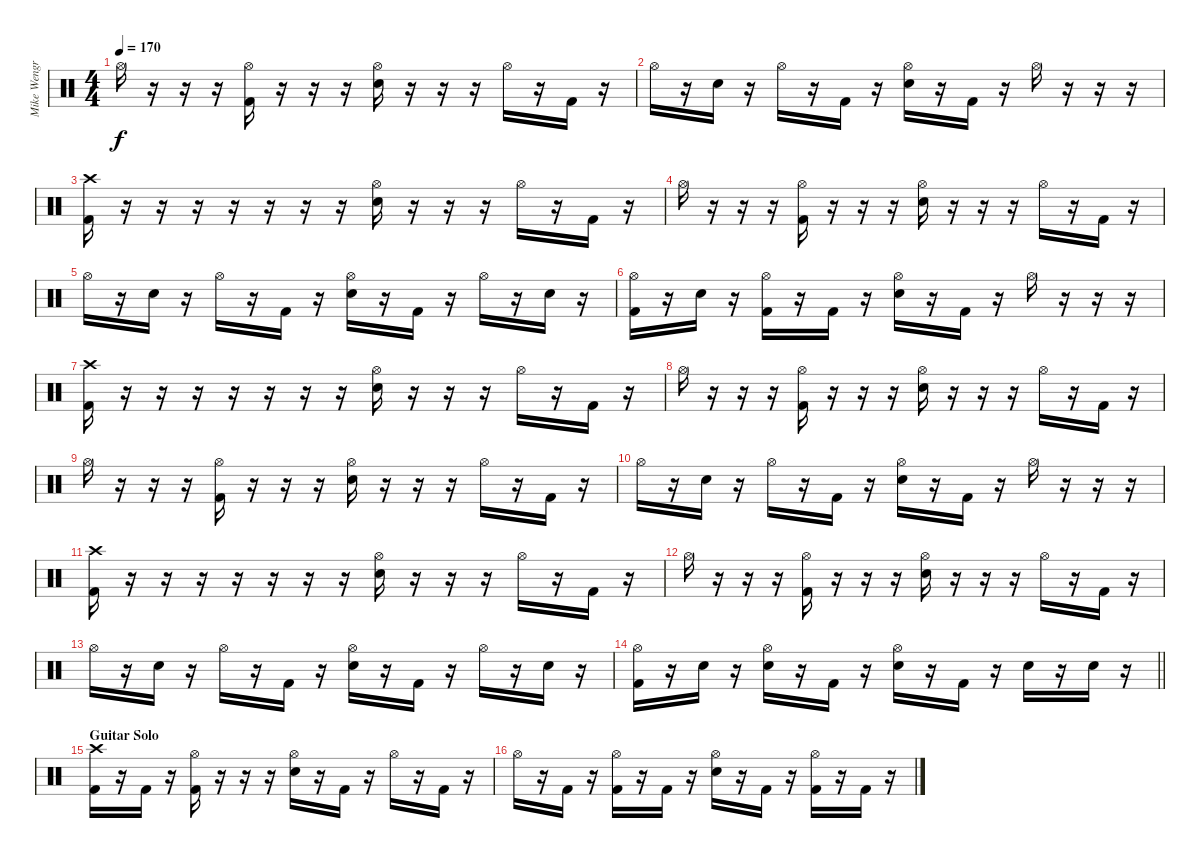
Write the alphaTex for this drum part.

\track ("Mike Wengren" "Mike Wengr") {instrument percussion}
\staff {score}
\articulation defaults
\ts (4 4)
\tempo 170
\clef neutral
\ks c "Hi-Hat (open)".16{dy f}
r.16 r.16 r.16 ("Hi-Hat (open)" "Kick (hit) 2").16 r.16 r.16 r.16 ("Hi-Hat (open)" "Snare (hit) 2").16 r.16 r.16 r.16 "Hi-Hat (open)".16 r.16 "Kick (hit) 2".16 r.16 |
"Hi-Hat (open)".16 r.16 "Snare (hit) 2".16 r.16 "Hi-Hat (open)".16 r.16 "Kick (hit) 2".16 r.16 ("Hi-Hat (open)" "Snare (hit) 2").16 r.16 "Kick (hit) 2".16 r.16 "Hi-Hat (open)".16 r.16 r.16 r.16 |
("Crash high (hit)" "Kick (hit) 2").16 r.16 r.16 r.16 r.16 r.16 r.16 r.16 ("Hi-Hat (open)" "Snare (hit) 2").16 r.16 r.16 r.16 "Hi-Hat (open)".16 r.16 "Kick (hit) 2".16 r.16 |
"Hi-Hat (open)".16 r.16 r.16 r.16 ("Hi-Hat (open)" "Kick (hit) 2").16 r.16 r.16 r.16 ("Hi-Hat (open)" "Snare (hit) 2").16 r.16 r.16 r.16 "Hi-Hat (open)".16 r.16 "Kick (hit) 2".16 r.16 |
"Hi-Hat (open)".16 r.16 "Snare (hit) 2".16 r.16 "Hi-Hat (open)".16 r.16 "Kick (hit) 2".16 r.16 ("Hi-Hat (open)" "Snare (hit) 2").16 r.16 "Kick (hit) 2".16 r.16 "Hi-Hat (open)".16 r.16 "Snare (hit) 2".16 r.16 |
("Hi-Hat (open)" "Kick (hit) 2").16 r.16 "Snare (hit) 2".16 r.16 ("Hi-Hat (open)" "Kick (hit) 2").16 r.16 "Kick (hit) 2".16 r.16 ("Hi-Hat (open)" "Snare (hit) 2").16 r.16 "Kick (hit) 2".16 r.16 "Hi-Hat (open)".16 r.16 r.16 r.16 |
("Crash high (hit)" "Kick (hit) 2").16 r.16 r.16 r.16 r.16 r.16 r.16 r.16 ("Hi-Hat (open)" "Snare (hit) 2").16 r.16 r.16 r.16 "Hi-Hat (open)".16 r.16 "Kick (hit) 2".16 r.16 |
"Hi-Hat (open)".16 r.16 r.16 r.16 ("Hi-Hat (open)" "Kick (hit) 2").16 r.16 r.16 r.16 ("Hi-Hat (open)" "Snare (hit) 2").16 r.16 r.16 r.16 "Hi-Hat (open)".16 r.16 "Kick (hit) 2".16 r.16 |
"Hi-Hat (open)".16 r.16 r.16 r.16 ("Hi-Hat (open)" "Kick (hit) 2").16 r.16 r.16 r.16 ("Hi-Hat (open)" "Snare (hit) 2").16 r.16 r.16 r.16 "Hi-Hat (open)".16 r.16 "Kick (hit) 2".16 r.16 |
"Hi-Hat (open)".16 r.16 "Snare (hit) 2".16 r.16 "Hi-Hat (open)".16 r.16 "Kick (hit) 2".16 r.16 ("Hi-Hat (open)" "Snare (hit) 2").16 r.16 "Kick (hit) 2".16 r.16 "Hi-Hat (open)".16 r.16 r.16 r.16 |
("Crash high (hit)" "Kick (hit) 2").16 r.16 r.16 r.16 r.16 r.16 r.16 r.16 ("Hi-Hat (open)" "Snare (hit) 2").16 r.16 r.16 r.16 "Hi-Hat (open)".16 r.16 "Kick (hit) 2".16 r.16 |
"Hi-Hat (open)".16 r.16 r.16 r.16 ("Hi-Hat (open)" "Kick (hit) 2").16 r.16 r.16 r.16 ("Hi-Hat (open)" "Snare (hit) 2").16 r.16 r.16 r.16 "Hi-Hat (open)".16 r.16 "Kick (hit) 2".16 r.16 |
"Hi-Hat (open)".16 r.16 "Snare (hit) 2".16 r.16 "Hi-Hat (open)".16 r.16 "Kick (hit) 2".16 r.16 ("Hi-Hat (open)" "Snare (hit) 2").16 r.16 "Kick (hit) 2".16 r.16 "Hi-Hat (open)".16 r.16 "Snare (hit) 2".16 r.16 |
\barLineRight lightlight
("Hi-Hat (open)" "Kick (hit) 2").16 r.16 "Snare (hit) 2".16 r.16 ("Hi-Hat (open)" "Snare (hit) 2").16 r.16 "Kick (hit) 2".16 r.16 ("Hi-Hat (open)" "Snare (hit) 2").16 r.16 "Kick (hit) 2".16 r.16 "Snare (hit) 2".16 r.16 "Snare (hit) 2".16 r.16 |
\section ("" "Guitar Solo")
("Crash high (hit)" "Kick (hit) 2").16 r.16 "Kick (hit) 2".16 r.16 ("Hi-Hat (open)" "Kick (hit) 2").16 r.16 r.16 r.16 ("Hi-Hat (open)" "Snare (hit) 2").16 r.16 "Kick (hit) 2".16 r.16 "Hi-Hat (open)".16 r.16 "Kick (hit) 2".16 r.16 |
"Hi-Hat (open)".16 r.16 "Kick (hit) 2".16 r.16 ("Hi-Hat (open)" "Kick (hit) 2").16 r.16 "Kick (hit) 2".16 r.16 ("Hi-Hat (open)" "Snare (hit) 2").16 r.16 "Kick (hit) 2".16 r.16 ("Hi-Hat (open)" "Kick (hit) 2").16 r.16 "Kick (hit) 2".16 r.16
